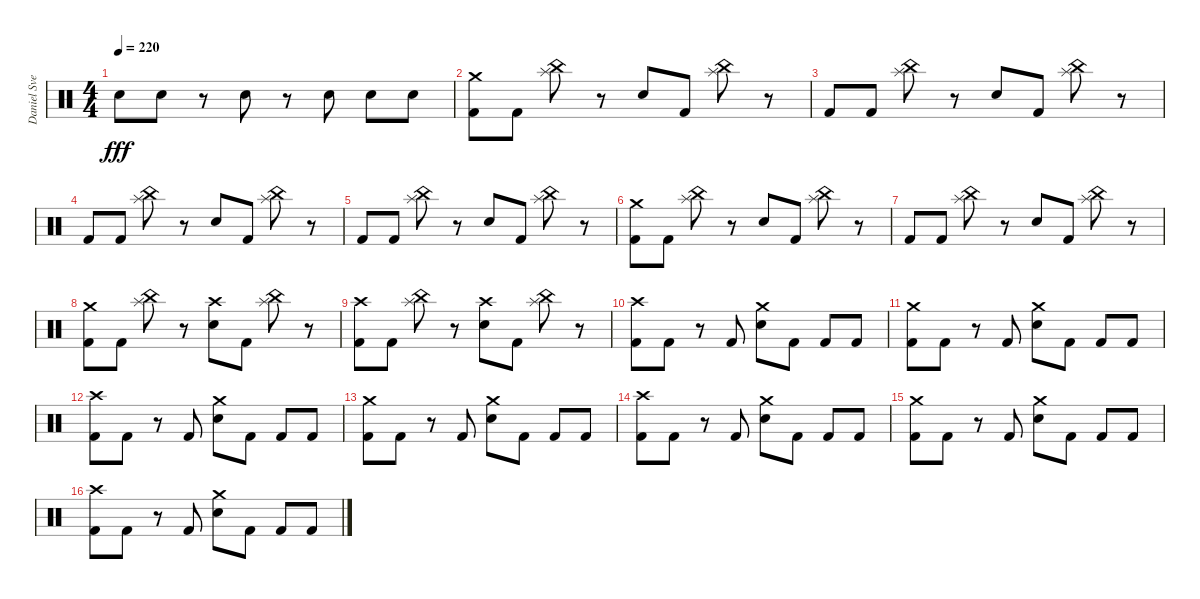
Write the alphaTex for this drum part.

\track ("Daniel Svensson" "Daniel Sve") {instrument percussion}
\staff {score}
\articulation defaults
\ts (4 4)
\tempo 220
\clef neutral
\ks c "Electric Snare (hit)".8{dy fff} "Electric Snare (hit)".8
r.8 "Electric Snare (hit)".8 r.8 "Electric Snare (hit)".8 "Electric Snare (hit)".8 "Electric Snare (hit)".8 |
("Crash medium (hit)" "Kick (hit) 2").8 "Kick (hit) 2".8 ("China (hit)" "Splash (hit)").8 r.8 "Electric Snare (hit)".8 "Kick (hit) 2".8 ("China (hit)" "Splash (hit)").8 r.8 |
"Kick (hit) 2".8 "Kick (hit) 2".8 ("China (hit)" "Splash (hit)").8 r.8 "Electric Snare (hit)".8 "Kick (hit) 2".8 ("China (hit)" "Splash (hit)").8 r.8 |
"Kick (hit) 2".8 "Kick (hit) 2".8 ("China (hit)" "Splash (hit)").8 r.8 "Electric Snare (hit)".8 "Kick (hit) 2".8 ("China (hit)" "Splash (hit)").8 r.8 |
"Kick (hit) 2".8 "Kick (hit) 2".8 ("China (hit)" "Splash (hit)").8 r.8 "Electric Snare (hit)".8 "Kick (hit) 2".8 ("China (hit)" "Splash (hit)").8 r.8 |
("Crash medium (hit)" "Kick (hit) 2").8 "Kick (hit) 2".8 ("China (hit)" "Splash (hit)").8 r.8 "Electric Snare (hit)".8 "Kick (hit) 2".8 ("China (hit)" "Splash (hit)").8 r.8 |
"Kick (hit) 2".8 "Kick (hit) 2".8 ("China (hit)" "Splash (hit)").8 r.8 "Electric Snare (hit)".8 "Kick (hit) 2".8 ("China (hit)" "Splash (hit)").8 r.8 |
("Crash medium (hit)" "Kick (hit) 2").8 "Kick (hit) 2".8 ("China (hit)" "Splash (hit)").8 r.8 ("Crash high (hit)" "Electric Snare (hit)").8 "Kick (hit) 2".8 ("China (hit)" "Splash (hit)").8 r.8 |
("Crash high (hit)" "Kick (hit) 2").8 "Kick (hit) 2".8 ("China (hit)" "Splash (hit)").8 r.8 ("Crash high (hit)" "Electric Snare (hit)").8 "Kick (hit) 2".8 ("China (hit)" "Splash (hit)").8 r.8 |
("Crash high (hit)" "Kick (hit) 2").8 "Kick (hit) 2".8 r.8 "Kick (hit) 2".8 ("Crash medium (hit)" "Electric Snare (hit)").8 "Kick (hit) 2".8 "Kick (hit) 2".8 "Kick (hit) 2".8 |
("Crash medium (hit)" "Kick (hit) 2").8 "Kick (hit) 2".8 r.8 "Kick (hit) 2".8 ("Crash medium (hit)" "Electric Snare (hit)").8 "Kick (hit) 2".8 "Kick (hit) 2".8 "Kick (hit) 2".8 |
("Crash high (hit)" "Kick (hit) 2").8 "Kick (hit) 2".8 r.8 "Kick (hit) 2".8 ("Crash medium (hit)" "Electric Snare (hit)").8 "Kick (hit) 2".8 "Kick (hit) 2".8 "Kick (hit) 2".8 |
("Crash medium (hit)" "Kick (hit) 2").8 "Kick (hit) 2".8 r.8 "Kick (hit) 2".8 ("Crash medium (hit)" "Electric Snare (hit)").8 "Kick (hit) 2".8 "Kick (hit) 2".8 "Kick (hit) 2".8 |
("Crash high (hit)" "Kick (hit) 2").8 "Kick (hit) 2".8 r.8 "Kick (hit) 2".8 ("Crash medium (hit)" "Electric Snare (hit)").8 "Kick (hit) 2".8 "Kick (hit) 2".8 "Kick (hit) 2".8 |
("Crash medium (hit)" "Kick (hit) 2").8 "Kick (hit) 2".8 r.8 "Kick (hit) 2".8 ("Crash medium (hit)" "Electric Snare (hit)").8 "Kick (hit) 2".8 "Kick (hit) 2".8 "Kick (hit) 2".8 |
("Crash high (hit)" "Kick (hit) 2").8 "Kick (hit) 2".8 r.8 "Kick (hit) 2".8 ("Crash medium (hit)" "Electric Snare (hit)").8 "Kick (hit) 2".8 "Kick (hit) 2".8 "Kick (hit) 2".8
